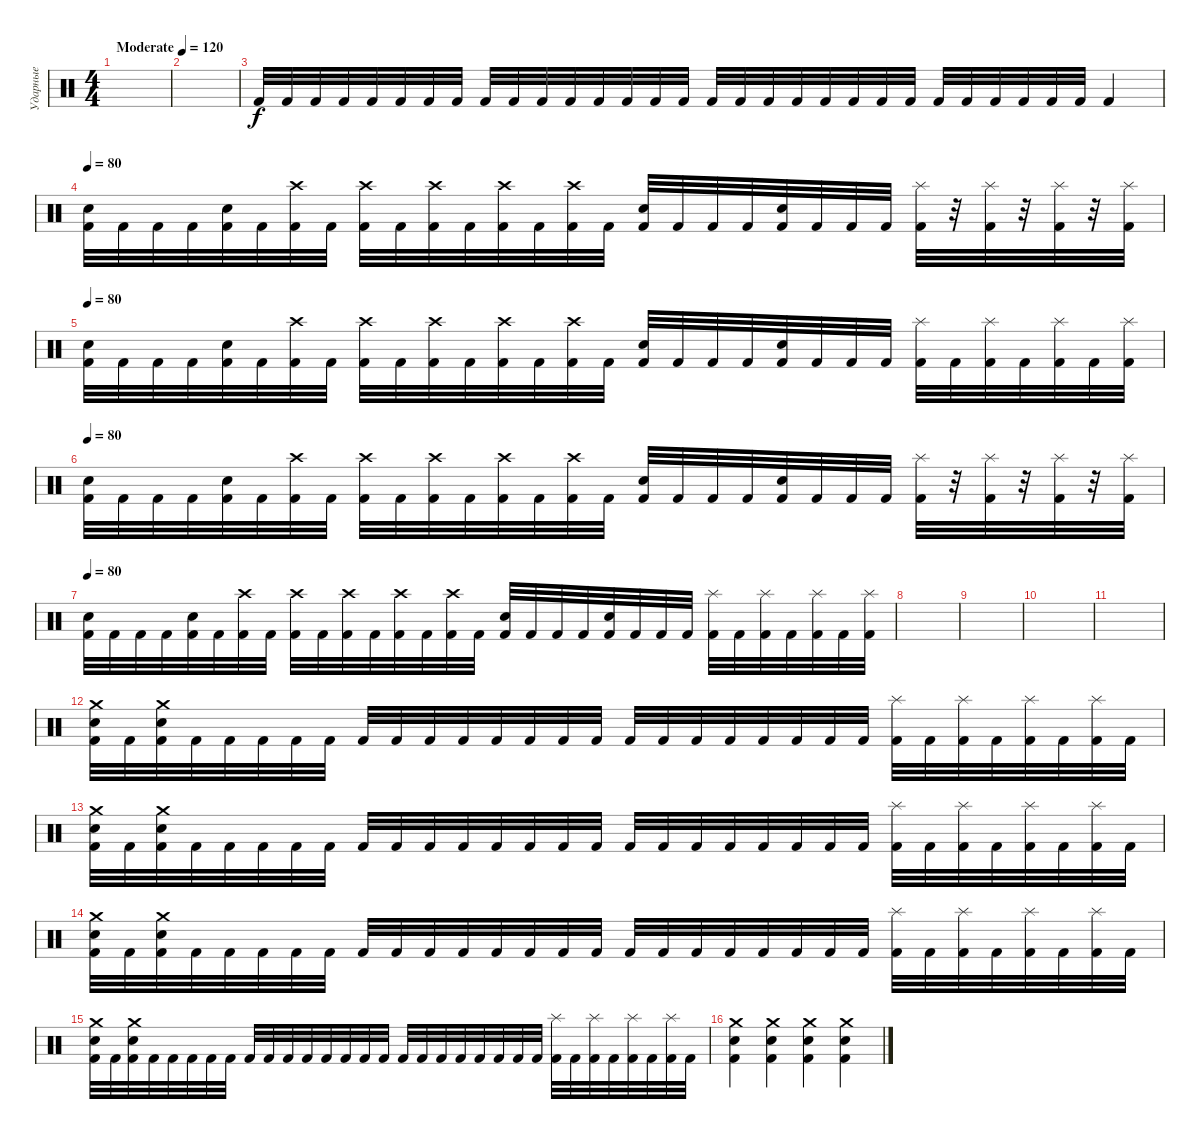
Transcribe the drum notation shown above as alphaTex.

\track ("Ударные" "Ударные") {instrument percussion}
\staff {score}
\articulation defaults
\ts (4 4)
\tempo (120 "Moderate")
\tempo 80
\tempo (120 "Moderate")
\clef neutral
\ks c
|
|
"Kick (hit) 2".32{volume 0} "Kick (hit) 2".32{volume 16} "Kick (hit) 2".32 "Kick (hit) 2".32 "Kick (hit) 2".32 "Kick (hit) 2".32 "Kick (hit) 2".32 "Kick (hit) 2".32 "Kick (hit) 2".32 "Kick (hit) 2".32 "Kick (hit) 2".32 "Kick (hit) 2".32 "Kick (hit) 2".32 "Kick (hit) 2".32 "Kick (hit) 2".32 "Kick (hit) 2".32 "Kick (hit) 2".32 "Kick (hit) 2".32 "Kick (hit) 2".32 "Kick (hit) 2".32 "Kick (hit) 2".32 "Kick (hit) 2".32 "Kick (hit) 2".32 "Kick (hit) 2".32 "Kick (hit) 2".32 "Kick (hit) 2".32 "Kick (hit) 2".32 "Kick (hit) 2".32 "Kick (hit) 2".32 "Kick (hit) 2".32 "Kick (hit) 2".4 |
\tempo 80
("Snare (hit) 2" "Kick (hit) 2").32{volume 16} "Kick (hit) 2".32 "Kick (hit) 2".32 "Kick (hit) 2".32 ("Snare (hit) 2" "Kick (hit) 2").32 "Kick (hit) 2".32 ("Crash high (hit)" "Kick (hit) 2").32 "Kick (hit) 2".32 ("Crash high (hit)" "Kick (hit) 2").32 "Kick (hit) 2".32 ("Crash high (hit)" "Kick (hit) 2").32 "Kick (hit) 2".32 ("Crash high (hit)" "Kick (hit) 2").32 "Kick (hit) 2".32 ("Crash high (hit)" "Kick (hit) 2").32 "Kick (hit) 2".32 ("Snare (hit) 2" "Kick (hit) 2").32 "Kick (hit) 2".32 "Kick (hit) 2".32 "Kick (hit) 2".32 ("Snare (hit) 2" "Kick (hit) 2").32 "Kick (hit) 2".32 "Kick (hit) 2".32 "Kick (hit) 2".32 ("Splash (hit)" "Kick (hit) 2").32 r.32 ("Splash (hit)" "Kick (hit) 2").32 r.32 ("Splash (hit)" "Kick (hit) 2").32 r.32 ("Splash (hit)" "Kick (hit) 2").32 |
\tempo 80
("Snare (hit) 2" "Kick (hit) 2").32 "Kick (hit) 2".32 "Kick (hit) 2".32 "Kick (hit) 2".32 ("Snare (hit) 2" "Kick (hit) 2").32 "Kick (hit) 2".32 ("Crash high (hit)" "Kick (hit) 2").32 "Kick (hit) 2".32 ("Crash high (hit)" "Kick (hit) 2").32 "Kick (hit) 2".32 ("Crash high (hit)" "Kick (hit) 2").32 "Kick (hit) 2".32 ("Crash high (hit)" "Kick (hit) 2").32 "Kick (hit) 2".32 ("Crash high (hit)" "Kick (hit) 2").32 "Kick (hit) 2".32 ("Snare (hit) 2" "Kick (hit) 2").32 "Kick (hit) 2".32 "Kick (hit) 2".32 "Kick (hit) 2".32 ("Snare (hit) 2" "Kick (hit) 2").32 "Kick (hit) 2".32 "Kick (hit) 2".32 "Kick (hit) 2".32 ("Splash (hit)" "Kick (hit) 2").32 "Kick (hit) 2".32 ("Splash (hit)" "Kick (hit) 2").32 "Kick (hit) 2".32 ("Splash (hit)" "Kick (hit) 2").32 "Kick (hit) 2".32 ("Splash (hit)" "Kick (hit) 2").32 |
\tempo 80
("Snare (hit) 2" "Kick (hit) 2").32{volume 16} "Kick (hit) 2".32 "Kick (hit) 2".32 "Kick (hit) 2".32 ("Snare (hit) 2" "Kick (hit) 2").32 "Kick (hit) 2".32 ("Crash high (hit)" "Kick (hit) 2").32 "Kick (hit) 2".32 ("Crash high (hit)" "Kick (hit) 2").32 "Kick (hit) 2".32 ("Crash high (hit)" "Kick (hit) 2").32 "Kick (hit) 2".32 ("Crash high (hit)" "Kick (hit) 2").32 "Kick (hit) 2".32 ("Crash high (hit)" "Kick (hit) 2").32 "Kick (hit) 2".32 ("Snare (hit) 2" "Kick (hit) 2").32 "Kick (hit) 2".32 "Kick (hit) 2".32 "Kick (hit) 2".32 ("Snare (hit) 2" "Kick (hit) 2").32 "Kick (hit) 2".32 "Kick (hit) 2".32 "Kick (hit) 2".32 ("Splash (hit)" "Kick (hit) 2").32 r.32 ("Splash (hit)" "Kick (hit) 2").32 r.32 ("Splash (hit)" "Kick (hit) 2").32 r.32 ("Splash (hit)" "Kick (hit) 2").32 |
\tempo 80
("Snare (hit) 2" "Kick (hit) 2").32 "Kick (hit) 2".32 "Kick (hit) 2".32 "Kick (hit) 2".32 ("Snare (hit) 2" "Kick (hit) 2").32 "Kick (hit) 2".32 ("Crash high (hit)" "Kick (hit) 2").32 "Kick (hit) 2".32 ("Crash high (hit)" "Kick (hit) 2").32 "Kick (hit) 2".32 ("Crash high (hit)" "Kick (hit) 2").32 "Kick (hit) 2".32 ("Crash high (hit)" "Kick (hit) 2").32 "Kick (hit) 2".32 ("Crash high (hit)" "Kick (hit) 2").32 "Kick (hit) 2".32 ("Snare (hit) 2" "Kick (hit) 2").32 "Kick (hit) 2".32 "Kick (hit) 2".32 "Kick (hit) 2".32 ("Snare (hit) 2" "Kick (hit) 2").32 "Kick (hit) 2".32 "Kick (hit) 2".32 "Kick (hit) 2".32 ("Splash (hit)" "Kick (hit) 2").32 "Kick (hit) 2".32 ("Splash (hit)" "Kick (hit) 2").32 "Kick (hit) 2".32 ("Splash (hit)" "Kick (hit) 2").32 "Kick (hit) 2".32 ("Splash (hit)" "Kick (hit) 2").32 |
|
|
|
|
("Crash medium (hit)" "Snare (hit) 2" "Kick (hit) 2").32 "Kick (hit) 2".32 ("Crash medium (hit)" "Snare (hit) 2" "Kick (hit) 2").32 "Kick (hit) 2".32 "Kick (hit) 2".32 "Kick (hit) 2".32 "Kick (hit) 2".32 "Kick (hit) 2".32 "Kick (hit) 2".32 "Kick (hit) 2".32 "Kick (hit) 2".32 "Kick (hit) 2".32 "Kick (hit) 2".32 "Kick (hit) 2".32 "Kick (hit) 2".32 "Kick (hit) 2".32 "Kick (hit) 2".32 "Kick (hit) 2".32 "Kick (hit) 2".32 "Kick (hit) 2".32 "Kick (hit) 2".32 "Kick (hit) 2".32 "Kick (hit) 2".32 "Kick (hit) 2".32 ("Splash (hit)" "Kick (hit) 2").32 "Kick (hit) 2".32 ("Splash (hit)" "Kick (hit) 2").32 "Kick (hit) 2".32 ("Splash (hit)" "Kick (hit) 2").32 "Kick (hit) 2".32 ("Splash (hit)" "Kick (hit) 2").32 "Kick (hit) 2".32 |
("Crash medium (hit)" "Snare (hit) 2" "Kick (hit) 2").32 "Kick (hit) 2".32 ("Crash medium (hit)" "Snare (hit) 2" "Kick (hit) 2").32 "Kick (hit) 2".32 "Kick (hit) 2".32 "Kick (hit) 2".32 "Kick (hit) 2".32 "Kick (hit) 2".32 "Kick (hit) 2".32 "Kick (hit) 2".32 "Kick (hit) 2".32 "Kick (hit) 2".32 "Kick (hit) 2".32 "Kick (hit) 2".32 "Kick (hit) 2".32 "Kick (hit) 2".32 "Kick (hit) 2".32 "Kick (hit) 2".32 "Kick (hit) 2".32 "Kick (hit) 2".32 "Kick (hit) 2".32 "Kick (hit) 2".32 "Kick (hit) 2".32 "Kick (hit) 2".32 ("Splash (hit)" "Kick (hit) 2").32 "Kick (hit) 2".32 ("Splash (hit)" "Kick (hit) 2").32 "Kick (hit) 2".32 ("Splash (hit)" "Kick (hit) 2").32 "Kick (hit) 2".32 ("Splash (hit)" "Kick (hit) 2").32 "Kick (hit) 2".32 |
("Crash medium (hit)" "Snare (hit) 2" "Kick (hit) 2").32 "Kick (hit) 2".32 ("Crash medium (hit)" "Snare (hit) 2" "Kick (hit) 2").32 "Kick (hit) 2".32 "Kick (hit) 2".32 "Kick (hit) 2".32 "Kick (hit) 2".32 "Kick (hit) 2".32 "Kick (hit) 2".32 "Kick (hit) 2".32 "Kick (hit) 2".32 "Kick (hit) 2".32 "Kick (hit) 2".32 "Kick (hit) 2".32 "Kick (hit) 2".32 "Kick (hit) 2".32 "Kick (hit) 2".32 "Kick (hit) 2".32 "Kick (hit) 2".32 "Kick (hit) 2".32 "Kick (hit) 2".32 "Kick (hit) 2".32 "Kick (hit) 2".32 "Kick (hit) 2".32 ("Splash (hit)" "Kick (hit) 2").32 "Kick (hit) 2".32 ("Splash (hit)" "Kick (hit) 2").32 "Kick (hit) 2".32 ("Splash (hit)" "Kick (hit) 2").32 "Kick (hit) 2".32 ("Splash (hit)" "Kick (hit) 2").32 "Kick (hit) 2".32 |
("Crash medium (hit)" "Snare (hit) 2" "Kick (hit) 2").32 "Kick (hit) 2".32 ("Crash medium (hit)" "Snare (hit) 2" "Kick (hit) 2").32 "Kick (hit) 2".32 "Kick (hit) 2".32 "Kick (hit) 2".32 "Kick (hit) 2".32 "Kick (hit) 2".32 "Kick (hit) 2".32 "Kick (hit) 2".32 "Kick (hit) 2".32 "Kick (hit) 2".32 "Kick (hit) 2".32 "Kick (hit) 2".32 "Kick (hit) 2".32 "Kick (hit) 2".32 "Kick (hit) 2".32 "Kick (hit) 2".32 "Kick (hit) 2".32 "Kick (hit) 2".32 "Kick (hit) 2".32 "Kick (hit) 2".32 "Kick (hit) 2".32 "Kick (hit) 2".32 ("Splash (hit)" "Kick (hit) 2").32 "Kick (hit) 2".32 ("Splash (hit)" "Kick (hit) 2").32 "Kick (hit) 2".32 ("Splash (hit)" "Kick (hit) 2").32 "Kick (hit) 2".32 ("Splash (hit)" "Kick (hit) 2").32 "Kick (hit) 2".32 |
("Crash medium (hit)" "Snare (hit) 2" "Kick (hit) 2").4 ("Crash medium (hit)" "Snare (hit) 2" "Kick (hit) 2").4 ("Crash medium (hit)" "Snare (hit) 2" "Kick (hit) 2").4 ("Crash medium (hit)" "Snare (hit) 2" "Kick (hit) 2").4
